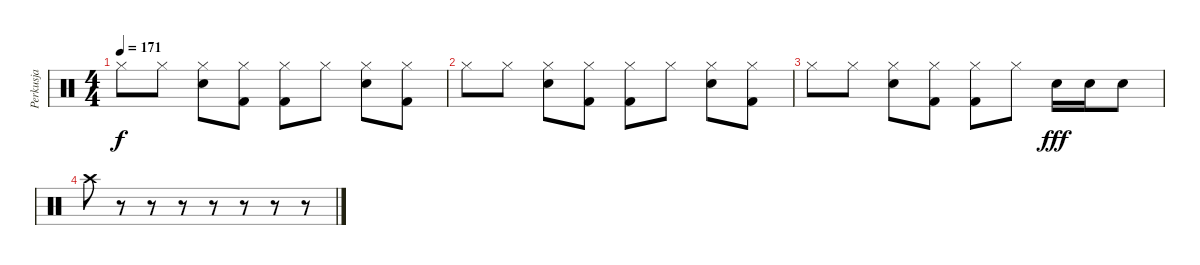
\track ("Perkusja" "Perkusja") {instrument percussion}
\staff {score}
\articulation defaults
\ts (4 4)
\tempo 171
\clef neutral
\ks c "Hi-Hat (closed)".8{dy f} "Hi-Hat (closed)".8
("Hi-Hat (closed)" "Snare (hit) 2").8 ("Hi-Hat (closed)" "Kick (hit) 2").8 ("Hi-Hat (closed)" "Kick (hit) 2").8 "Hi-Hat (closed)".8 ("Hi-Hat (closed)" "Snare (hit) 2").8 ("Hi-Hat (closed)" "Kick (hit) 2").8 |
"Hi-Hat (closed)".8 "Hi-Hat (closed)".8 ("Hi-Hat (closed)" "Snare (hit) 2").8 ("Hi-Hat (closed)" "Kick (hit) 2").8 ("Hi-Hat (closed)" "Kick (hit) 2").8 "Hi-Hat (closed)".8 ("Hi-Hat (closed)" "Snare (hit) 2").8 ("Hi-Hat (closed)" "Kick (hit) 2").8 |
"Hi-Hat (closed)".8 "Hi-Hat (closed)".8 ("Hi-Hat (closed)" "Snare (hit) 2").8 ("Hi-Hat (closed)" "Kick (hit) 2").8 ("Hi-Hat (closed)" "Kick (hit) 2").8 "Hi-Hat (closed)".8 "Snare (hit) 2".16{dy fff} "Snare (hit) 2".16 "Snare (hit) 2".8 |
"Crash high (hit)".8 r.8 r.8 r.8 r.8 r.8 r.8 r.8
